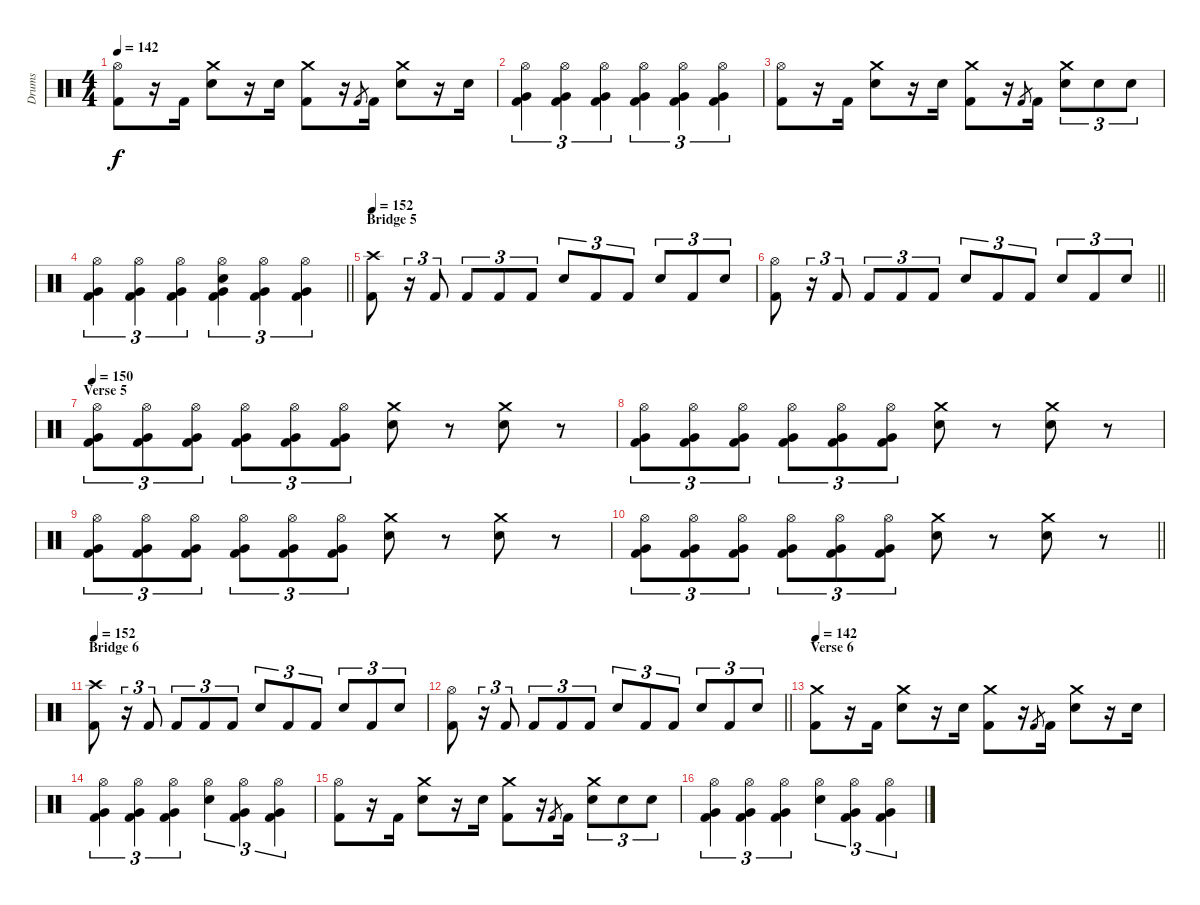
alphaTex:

\track ("Drums" "Drums") {instrument percussion}
\staff {score}
\articulation defaults
\ts (4 4)
\tempo 142
\clef neutral
\ks c
("Hi-Hat (open)" "Kick (hit) 2").8{dy f} r.16 "Kick (hit) 2".16 ("Crash medium (hit)" "Electric Snare (hit)").8 r.16 "Electric Snare (hit)".16 ("Crash medium (hit)" "Kick (hit) 2").8 r.16 "Kick (hit) 2".8{gr} "Kick (hit) 2".16 ("Crash medium (hit)" "Electric Snare (hit)").8 r.16 "Electric Snare (hit)".16 |
("Hi-Hat (open)" "Very Low Tom (hit)" "Kick (hit) 2").4{tu (3 2)} ("Hi-Hat (open)" "Very Low Tom (hit)" "Kick (hit) 2").4{tu (3 2)} ("Hi-Hat (open)" "Very Low Tom (hit)" "Kick (hit) 2").4{tu (3 2)} ("Hi-Hat (open)" "Very Low Tom (hit)" "Kick (hit) 2").4{tu (3 2)} ("Hi-Hat (open)" "Very Low Tom (hit)" "Kick (hit) 2").4{tu (3 2)} ("Hi-Hat (open)" "Very Low Tom (hit)" "Kick (hit) 2").4{tu (3 2)} |
("Hi-Hat (open)" "Kick (hit) 2").8 r.16 "Kick (hit) 2".16 ("Crash medium (hit)" "Electric Snare (hit)").8 r.16 "Electric Snare (hit)".16 ("Crash medium (hit)" "Kick (hit) 2").8 r.16 "Kick (hit) 2".8{gr} "Kick (hit) 2".16 ("Crash medium (hit)" "Electric Snare (hit)").8{tu (3 2)} "Electric Snare (hit)".8{tu (3 2)} "Electric Snare (hit)".8{tu (3 2)} |
\barLineRight lightlight
("Hi-Hat (open)" "Very Low Tom (hit)" "Kick (hit) 2").4{tu (3 2)} ("Hi-Hat (open)" "Very Low Tom (hit)" "Kick (hit) 2").4{tu (3 2)} ("Hi-Hat (open)" "Very Low Tom (hit)" "Kick (hit) 2").4{tu (3 2)} ("Hi-Hat (open)" "Electric Snare (hit)" "Very Low Tom (hit)" "Kick (hit) 2").4{tu (3 2)} ("Hi-Hat (open)" "Very Low Tom (hit)" "Kick (hit) 2").4{tu (3 2)} ("Hi-Hat (open)" "Very Low Tom (hit)" "Kick (hit) 2").4{tu (3 2)} |
\section ("" "Bridge 5")
\tempo 152
("Crash high (hit)" "Kick (hit) 2").8 r.16{tu (3 2)} "Kick (hit) 2".8{tu (3 2)} "Kick (hit) 2".8{tu (3 2)} "Kick (hit) 2".8{tu (3 2)} "Kick (hit) 2".8{tu (3 2)} "Electric Snare (hit)".8{tu (3 2)} "Kick (hit) 2".8{tu (3 2)} "Kick (hit) 2".8{tu (3 2)} "Electric Snare (hit)".8{tu (3 2)} "Kick (hit) 2".8{tu (3 2)} "Electric Snare (hit)".8{tu (3 2)} |
\barLineRight lightlight
("Hi-Hat (open)" "Kick (hit) 2").8 r.16{tu (3 2)} "Kick (hit) 2".8{tu (3 2)} "Kick (hit) 2".8{tu (3 2)} "Kick (hit) 2".8{tu (3 2)} "Kick (hit) 2".8{tu (3 2)} "Electric Snare (hit)".8{tu (3 2)} "Kick (hit) 2".8{tu (3 2)} "Kick (hit) 2".8{tu (3 2)} "Electric Snare (hit)".8{tu (3 2)} "Kick (hit) 2".8{tu (3 2)} "Electric Snare (hit)".8{tu (3 2)} |
\section ("" "Verse 5")
\tempo 150
("Hi-Hat (open)" "Very Low Tom (hit)" "Kick (hit) 2").8{tu (3 2)} ("Hi-Hat (open)" "Very Low Tom (hit)" "Kick (hit) 2").8{tu (3 2)} ("Hi-Hat (open)" "Very Low Tom (hit)" "Kick (hit) 2").8{tu (3 2)} ("Hi-Hat (open)" "Very Low Tom (hit)" "Kick (hit) 2").8{tu (3 2)} ("Hi-Hat (open)" "Very Low Tom (hit)" "Kick (hit) 2").8{tu (3 2)} ("Hi-Hat (open)" "Very Low Tom (hit)" "Kick (hit) 2").8{tu (3 2)} ("Crash medium (hit)" "Electric Snare (hit)").8 r.8 ("Crash medium (hit)" "Electric Snare (hit)").8 r.8 |
("Hi-Hat (open)" "Very Low Tom (hit)" "Kick (hit) 2").8{tu (3 2)} ("Hi-Hat (open)" "Very Low Tom (hit)" "Kick (hit) 2").8{tu (3 2)} ("Hi-Hat (open)" "Very Low Tom (hit)" "Kick (hit) 2").8{tu (3 2)} ("Hi-Hat (open)" "Very Low Tom (hit)" "Kick (hit) 2").8{tu (3 2)} ("Hi-Hat (open)" "Very Low Tom (hit)" "Kick (hit) 2").8{tu (3 2)} ("Hi-Hat (open)" "Very Low Tom (hit)" "Kick (hit) 2").8{tu (3 2)} ("Crash medium (hit)" "Electric Snare (hit)").8 r.8 ("Crash medium (hit)" "Electric Snare (hit)").8 r.8 |
("Hi-Hat (open)" "Very Low Tom (hit)" "Kick (hit) 2").8{tu (3 2)} ("Hi-Hat (open)" "Very Low Tom (hit)" "Kick (hit) 2").8{tu (3 2)} ("Hi-Hat (open)" "Very Low Tom (hit)" "Kick (hit) 2").8{tu (3 2)} ("Hi-Hat (open)" "Very Low Tom (hit)" "Kick (hit) 2").8{tu (3 2)} ("Hi-Hat (open)" "Very Low Tom (hit)" "Kick (hit) 2").8{tu (3 2)} ("Hi-Hat (open)" "Very Low Tom (hit)" "Kick (hit) 2").8{tu (3 2)} ("Crash medium (hit)" "Electric Snare (hit)").8 r.8 ("Crash medium (hit)" "Electric Snare (hit)").8 r.8 |
\barLineRight lightlight
("Hi-Hat (open)" "Very Low Tom (hit)" "Kick (hit) 2").8{tu (3 2)} ("Hi-Hat (open)" "Very Low Tom (hit)" "Kick (hit) 2").8{tu (3 2)} ("Hi-Hat (open)" "Very Low Tom (hit)" "Kick (hit) 2").8{tu (3 2)} ("Hi-Hat (open)" "Very Low Tom (hit)" "Kick (hit) 2").8{tu (3 2)} ("Hi-Hat (open)" "Very Low Tom (hit)" "Kick (hit) 2").8{tu (3 2)} ("Hi-Hat (open)" "Very Low Tom (hit)" "Kick (hit) 2").8{tu (3 2)} ("Crash medium (hit)" "Electric Snare (hit)").8 r.8 ("Crash medium (hit)" "Electric Snare (hit)").8 r.8 |
\section ("" "Bridge 6")
\tempo 152
("Crash high (hit)" "Kick (hit) 2").8 r.16{tu (3 2)} "Kick (hit) 2".8{tu (3 2)} "Kick (hit) 2".8{tu (3 2)} "Kick (hit) 2".8{tu (3 2)} "Kick (hit) 2".8{tu (3 2)} "Electric Snare (hit)".8{tu (3 2)} "Kick (hit) 2".8{tu (3 2)} "Kick (hit) 2".8{tu (3 2)} "Electric Snare (hit)".8{tu (3 2)} "Kick (hit) 2".8{tu (3 2)} "Electric Snare (hit)".8{tu (3 2)} |
\barLineRight lightlight
("Hi-Hat (open)" "Kick (hit) 2").8 r.16{tu (3 2)} "Kick (hit) 2".8{tu (3 2)} "Kick (hit) 2".8{tu (3 2)} "Kick (hit) 2".8{tu (3 2)} "Kick (hit) 2".8{tu (3 2)} "Electric Snare (hit)".8{tu (3 2)} "Kick (hit) 2".8{tu (3 2)} "Kick (hit) 2".8{tu (3 2)} "Electric Snare (hit)".8{tu (3 2)} "Kick (hit) 2".8{tu (3 2)} "Electric Snare (hit)".8{tu (3 2)} |
\section ("" "Verse 6")
\tempo 142
("Crash medium (hit)" "Kick (hit) 2").8 r.16 "Kick (hit) 2".16 ("Crash medium (hit)" "Electric Snare (hit)").8 r.16 "Electric Snare (hit)".16 ("Crash medium (hit)" "Kick (hit) 2").8 r.16 "Kick (hit) 2".8{gr} "Kick (hit) 2".16 ("Crash medium (hit)" "Electric Snare (hit)").8 r.16 "Electric Snare (hit)".16 |
("Hi-Hat (open)" "Very Low Tom (hit)" "Kick (hit) 2").4{tu (3 2)} ("Hi-Hat (open)" "Very Low Tom (hit)" "Kick (hit) 2").4{tu (3 2)} ("Hi-Hat (open)" "Very Low Tom (hit)" "Kick (hit) 2").4{tu (3 2)} ("Hi-Hat (open)" "Electric Snare (hit)").4{tu (3 2)} ("Hi-Hat (open)" "Very Low Tom (hit)" "Kick (hit) 2").4{tu (3 2)} ("Hi-Hat (open)" "Very Low Tom (hit)" "Kick (hit) 2").4{tu (3 2)} |
("Hi-Hat (open)" "Kick (hit) 2").8 r.16 "Kick (hit) 2".16 ("Crash medium (hit)" "Electric Snare (hit)").8 r.16 "Electric Snare (hit)".16 ("Crash medium (hit)" "Kick (hit) 2").8 r.16 "Kick (hit) 2".8{gr} "Kick (hit) 2".16 ("Crash medium (hit)" "Electric Snare (hit)").8{tu (3 2)} "Electric Snare (hit)".8{tu (3 2)} "Electric Snare (hit)".8{tu (3 2)} |
("Hi-Hat (open)" "Very Low Tom (hit)" "Kick (hit) 2").4{tu (3 2)} ("Hi-Hat (open)" "Very Low Tom (hit)" "Kick (hit) 2").4{tu (3 2)} ("Hi-Hat (open)" "Very Low Tom (hit)" "Kick (hit) 2").4{tu (3 2)} ("Hi-Hat (open)" "Electric Snare (hit)").4{tu (3 2)} ("Hi-Hat (open)" "Very Low Tom (hit)" "Kick (hit) 2").4{tu (3 2)} ("Hi-Hat (open)" "Very Low Tom (hit)" "Kick (hit) 2").4{tu (3 2)}
